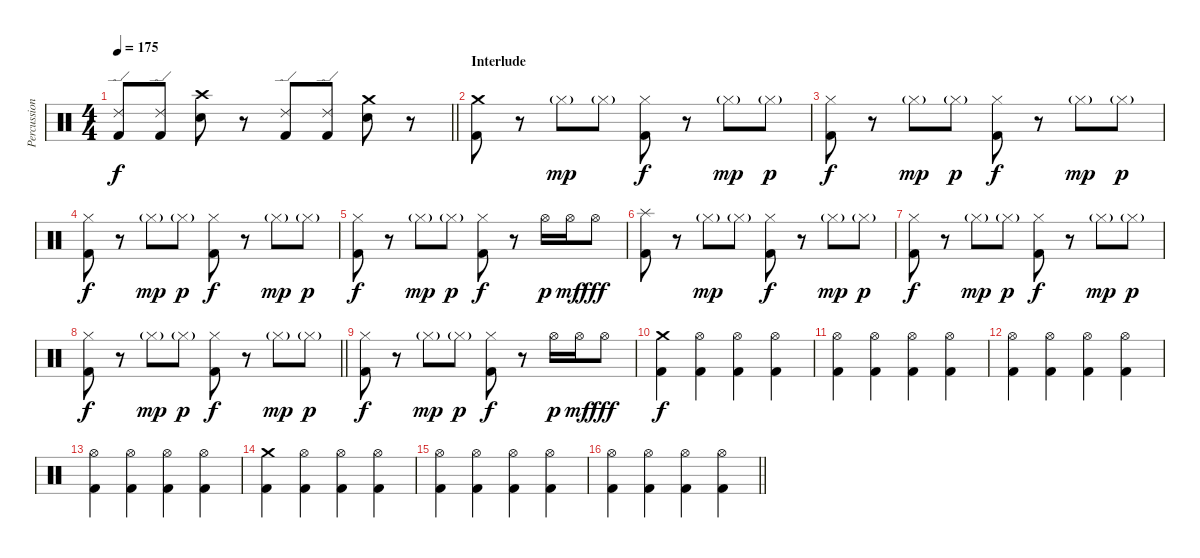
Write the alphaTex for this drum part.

\track ("Percussion" "Percussion") {instrument percussion}
\staff {score}
\articulation defaults
\ts (4 4)
\tempo 175
\clef neutral
\barLineRight lightlight
\ks c
("Ride (edge) 2" "Kick (hit) 2").8{dy f} ("Ride (edge) 2" "Kick (hit) 2").8 ("Crash high (hit)" "Electric Snare (hit)").8 r.8 ("Ride (edge) 2" "Kick (hit) 2").8 ("Ride (edge) 2" "Kick (hit) 2").8 ("Crash medium (hit)" "Electric Snare (hit)").8 r.8 |
\section ("" "Interlude")
("Crash medium (hit)" "Kick (hit) 2").8 r.8 "Hi-Hat (closed)"{g}.8{dy mp} "Hi-Hat (closed)"{g}.8 ("Hi-Hat (closed)" "Kick (hit) 2").8{dy f} r.8 "Hi-Hat (closed)"{g}.8{dy mp} "Hi-Hat (closed)"{g}.8{dy p} |
("Hi-Hat (closed)" "Kick (hit) 2").8{dy f} r.8 "Hi-Hat (closed)"{g}.8{dy mp} "Hi-Hat (closed)"{g}.8{dy p} ("Hi-Hat (closed)" "Kick (hit) 2").8{dy f} r.8 "Hi-Hat (closed)"{g}.8{dy mp} "Hi-Hat (closed)"{g}.8{dy p} |
("Hi-Hat (closed)" "Kick (hit) 2").8{dy f} r.8 "Hi-Hat (closed)"{g}.8{dy mp} "Hi-Hat (closed)"{g}.8{dy p} ("Hi-Hat (closed)" "Kick (hit) 2").8{dy f} r.8 "Hi-Hat (closed)"{g}.8{dy mp} "Hi-Hat (closed)"{g}.8{dy p} |
("Hi-Hat (closed)" "Kick (hit) 2").8{dy f} r.8 "Hi-Hat (closed)"{g}.8{dy mp} "Hi-Hat (closed)"{g}.8{dy p} ("Hi-Hat (closed)" "Kick (hit) 2").8{dy f} r.8 "Hi-Hat (open)".16{dy p} "Hi-Hat (open)".16{dy mf} "Hi-Hat (open)".8{dy fff} |
("Splash (hit)" "Kick (hit) 2").8 r.8 "Hi-Hat (closed)"{g}.8{dy mp} "Hi-Hat (closed)"{g}.8 ("Hi-Hat (closed)" "Kick (hit) 2").8{dy f} r.8 "Hi-Hat (closed)"{g}.8{dy mp} "Hi-Hat (closed)"{g}.8{dy p} |
("Hi-Hat (closed)" "Kick (hit) 2").8{dy f} r.8 "Hi-Hat (closed)"{g}.8{dy mp} "Hi-Hat (closed)"{g}.8{dy p} ("Hi-Hat (closed)" "Kick (hit) 2").8{dy f} r.8 "Hi-Hat (closed)"{g}.8{dy mp} "Hi-Hat (closed)"{g}.8{dy p} |
\barLineRight lightlight
("Hi-Hat (closed)" "Kick (hit) 2").8{dy f} r.8 "Hi-Hat (closed)"{g}.8{dy mp} "Hi-Hat (closed)"{g}.8{dy p} ("Hi-Hat (closed)" "Kick (hit) 2").8{dy f} r.8 "Hi-Hat (closed)"{g}.8{dy mp} "Hi-Hat (closed)"{g}.8{dy p} |
\section ("" "")
("Hi-Hat (closed)" "Kick (hit) 2").8{dy f} r.8 "Hi-Hat (closed)"{g}.8{dy mp} "Hi-Hat (closed)"{g}.8{dy p} ("Hi-Hat (closed)" "Kick (hit) 2").8{dy f} r.8 "Hi-Hat (open)".16{dy p} "Hi-Hat (open)".16{dy mf} "Hi-Hat (open)".8{dy fff} |
("Crash medium (hit)" "Kick (hit) 2").4{dy f} ("Hi-Hat (open)" "Kick (hit) 2").4 ("Hi-Hat (open)" "Kick (hit) 2").4 ("Hi-Hat (open)" "Kick (hit) 2").4 |
("Hi-Hat (open)" "Kick (hit) 2").4 ("Hi-Hat (open)" "Kick (hit) 2").4 ("Hi-Hat (open)" "Kick (hit) 2").4 ("Hi-Hat (open)" "Kick (hit) 2").4 |
("Hi-Hat (open)" "Kick (hit) 2").4 ("Hi-Hat (open)" "Kick (hit) 2").4 ("Hi-Hat (open)" "Kick (hit) 2").4 ("Hi-Hat (open)" "Kick (hit) 2").4 |
("Hi-Hat (open)" "Kick (hit) 2").4 ("Hi-Hat (open)" "Kick (hit) 2").4 ("Hi-Hat (open)" "Kick (hit) 2").4 ("Hi-Hat (open)" "Kick (hit) 2").4 |
("Crash medium (hit)" "Kick (hit) 2").4 ("Hi-Hat (open)" "Kick (hit) 2").4 ("Hi-Hat (open)" "Kick (hit) 2").4 ("Hi-Hat (open)" "Kick (hit) 2").4 |
("Hi-Hat (open)" "Kick (hit) 2").4 ("Hi-Hat (open)" "Kick (hit) 2").4 ("Hi-Hat (open)" "Kick (hit) 2").4 ("Hi-Hat (open)" "Kick (hit) 2").4 |
\barLineRight lightlight
("Hi-Hat (open)" "Kick (hit) 2").4 ("Hi-Hat (open)" "Kick (hit) 2").4 ("Hi-Hat (open)" "Kick (hit) 2").4 ("Hi-Hat (open)" "Kick (hit) 2").4
